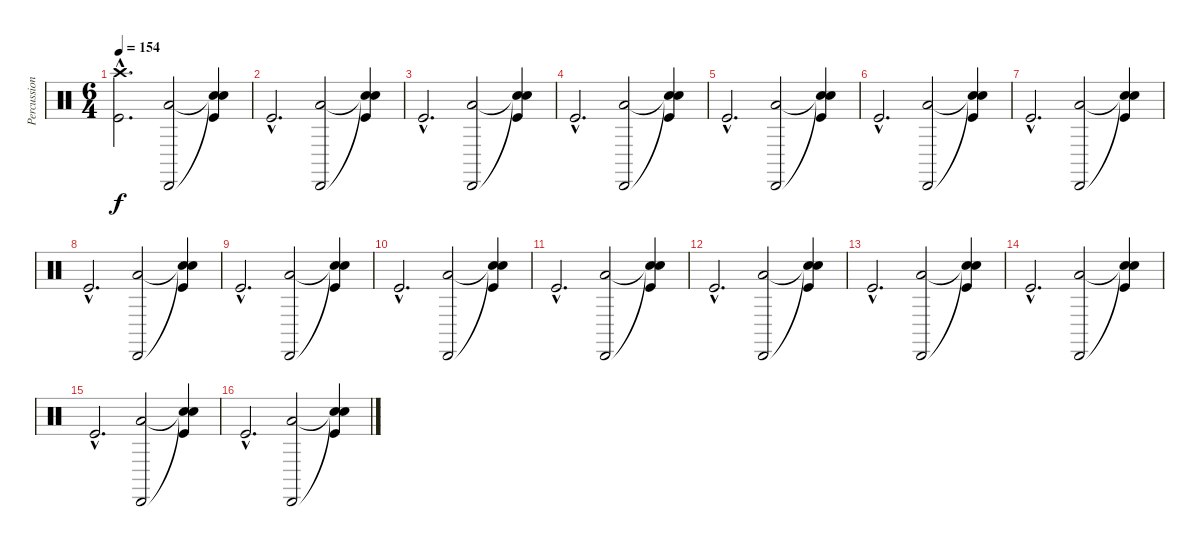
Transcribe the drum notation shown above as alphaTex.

\track ("Percussions" "Percussion") {instrument percussion}
\staff {score}
\articulation defaults
\ts (6 4)
\tempo 154
\clef neutral
\ks c
("Crash high (hit)"{hac} "Kick (hit)"{hac}).2{d dy f} ("Cabasa (hit)" "Low Tom (hit)").2 ("Snare (hit)"{t} "Snare (hit)"{t} "Kick (hit)").4 |
"Kick (hit)"{hac}.2{d} ("Cabasa (hit)" "Low Tom (hit)").2 ("Snare (hit)"{t} "Snare (hit)"{t} "Kick (hit)").4 |
"Kick (hit)"{hac}.2{d} ("Cabasa (hit)" "Low Tom (hit)").2 ("Snare (hit)"{t} "Snare (hit)"{t} "Kick (hit)").4 |
"Kick (hit)"{hac}.2{d} ("Cabasa (hit)" "Low Tom (hit)").2 ("Snare (hit)"{t} "Snare (hit)"{t} "Kick (hit)").4 |
"Kick (hit)"{hac}.2{d} ("Cabasa (hit)" "Low Tom (hit)").2 ("Snare (hit)"{t} "Snare (hit)"{t} "Kick (hit)").4 |
"Kick (hit)"{hac}.2{d} ("Cabasa (hit)" "Low Tom (hit)").2 ("Snare (hit)"{t} "Snare (hit)"{t} "Kick (hit)").4 |
"Kick (hit)"{hac}.2{d} ("Cabasa (hit)" "Low Tom (hit)").2 ("Snare (hit)"{t} "Snare (hit)"{t} "Kick (hit)").4 |
"Kick (hit)"{hac}.2{d} ("Cabasa (hit)" "Low Tom (hit)").2 ("Snare (hit)"{t} "Snare (hit)"{t} "Kick (hit)").4 |
"Kick (hit)"{hac}.2{d} ("Cabasa (hit)" "Low Tom (hit)").2 ("Snare (hit)"{t} "Snare (hit)"{t} "Kick (hit)").4 |
"Kick (hit)"{hac}.2{d} ("Cabasa (hit)" "Low Tom (hit)").2 ("Snare (hit)"{t} "Snare (hit)"{t} "Kick (hit)").4 |
"Kick (hit)"{hac}.2{d} ("Cabasa (hit)" "Low Tom (hit)").2 ("Snare (hit)"{t} "Snare (hit)"{t} "Kick (hit)").4 |
"Kick (hit)"{hac}.2{d} ("Cabasa (hit)" "Low Tom (hit)").2 ("Snare (hit)"{t} "Snare (hit)"{t} "Kick (hit)").4 |
"Kick (hit)"{hac}.2{d} ("Cabasa (hit)" "Low Tom (hit)").2 ("Snare (hit)"{t} "Snare (hit)"{t} "Kick (hit)").4 |
"Kick (hit)"{hac}.2{d} ("Cabasa (hit)" "Low Tom (hit)").2 ("Snare (hit)"{t} "Snare (hit)"{t} "Kick (hit)").4 |
"Kick (hit)"{hac}.2{d} ("Cabasa (hit)" "Low Tom (hit)").2 ("Snare (hit)"{t} "Snare (hit)"{t} "Kick (hit)").4 |
"Kick (hit)"{hac}.2{d} ("Cabasa (hit)" "Low Tom (hit)").2 ("Snare (hit)"{t} "Snare (hit)"{t} "Kick (hit)").4
